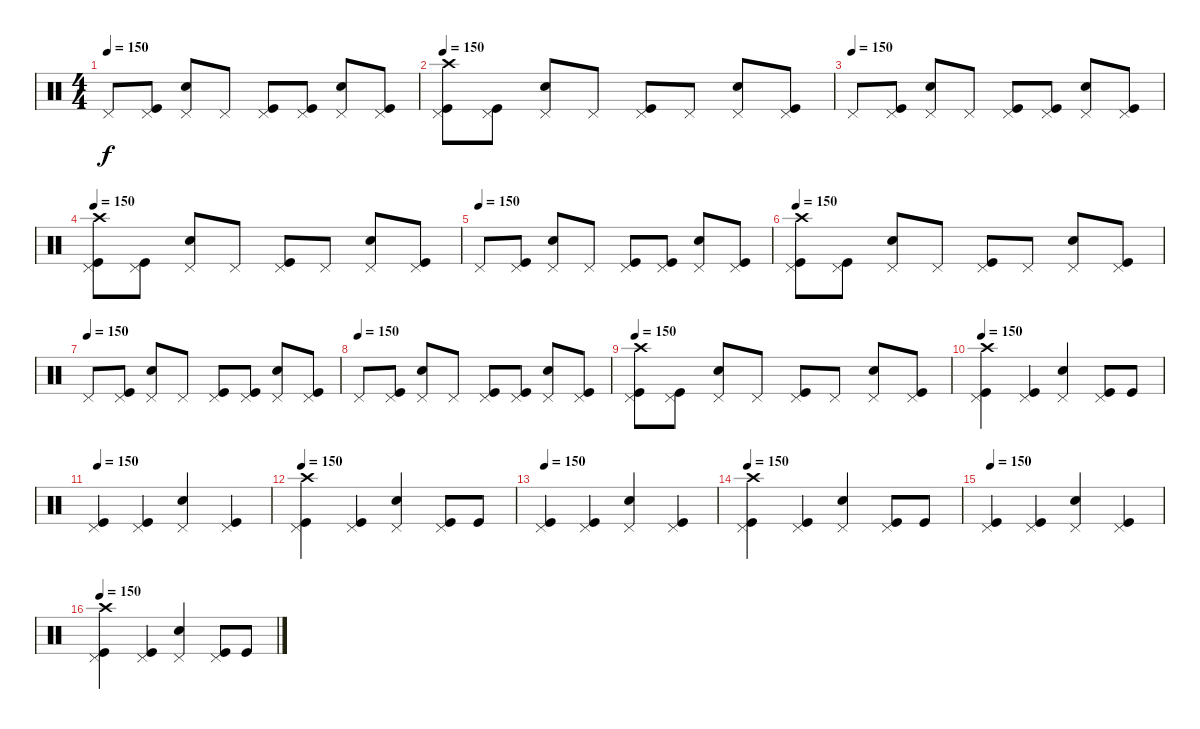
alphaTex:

\track "" {instrument percussion}
\staff {score}
\articulation defaults
\ts (4 4)
\tempo 150
\clef neutral
\ks c "Pedal Hi-Hat (hit)".8{dy f}
("Pedal Hi-Hat (hit)" "Kick (hit)").8 ("Pedal Hi-Hat (hit)" "Snare (hit) 2").8 "Pedal Hi-Hat (hit)".8 ("Pedal Hi-Hat (hit)" "Kick (hit)").8 ("Pedal Hi-Hat (hit)" "Kick (hit)").8 ("Pedal Hi-Hat (hit)" "Snare (hit) 2").8 ("Pedal Hi-Hat (hit)" "Kick (hit)").8 |
\tempo 150
("Pedal Hi-Hat (hit)" "Crash high (hit)" "Kick (hit)").8 ("Pedal Hi-Hat (hit)" "Kick (hit)").8 ("Pedal Hi-Hat (hit)" "Snare (hit) 2").8 "Pedal Hi-Hat (hit)".8 ("Pedal Hi-Hat (hit)" "Kick (hit)").8 "Pedal Hi-Hat (hit)".8 ("Pedal Hi-Hat (hit)" "Snare (hit) 2").8 ("Pedal Hi-Hat (hit)" "Kick (hit)").8 |
\tempo (150)
"Pedal Hi-Hat (hit)".8 ("Pedal Hi-Hat (hit)" "Kick (hit)").8 ("Pedal Hi-Hat (hit)" "Snare (hit) 2").8 "Pedal Hi-Hat (hit)".8 ("Pedal Hi-Hat (hit)" "Kick (hit)").8 ("Pedal Hi-Hat (hit)" "Kick (hit)").8 ("Pedal Hi-Hat (hit)" "Snare (hit) 2").8 ("Pedal Hi-Hat (hit)" "Kick (hit)").8 |
\tempo 150
("Pedal Hi-Hat (hit)" "Crash high (hit)" "Kick (hit)").8 ("Pedal Hi-Hat (hit)" "Kick (hit)").8 ("Pedal Hi-Hat (hit)" "Snare (hit) 2").8 "Pedal Hi-Hat (hit)".8 ("Pedal Hi-Hat (hit)" "Kick (hit)").8 "Pedal Hi-Hat (hit)".8 ("Pedal Hi-Hat (hit)" "Snare (hit) 2").8 ("Pedal Hi-Hat (hit)" "Kick (hit)").8 |
\tempo (150)
"Pedal Hi-Hat (hit)".8 ("Pedal Hi-Hat (hit)" "Kick (hit)").8 ("Pedal Hi-Hat (hit)" "Snare (hit) 2").8 "Pedal Hi-Hat (hit)".8 ("Pedal Hi-Hat (hit)" "Kick (hit)").8 ("Pedal Hi-Hat (hit)" "Kick (hit)").8 ("Pedal Hi-Hat (hit)" "Snare (hit) 2").8 ("Pedal Hi-Hat (hit)" "Kick (hit)").8 |
\tempo 150
("Pedal Hi-Hat (hit)" "Crash high (hit)" "Kick (hit)").8 ("Pedal Hi-Hat (hit)" "Kick (hit)").8 ("Pedal Hi-Hat (hit)" "Snare (hit) 2").8 "Pedal Hi-Hat (hit)".8 ("Pedal Hi-Hat (hit)" "Kick (hit)").8 "Pedal Hi-Hat (hit)".8 ("Pedal Hi-Hat (hit)" "Snare (hit) 2").8 ("Pedal Hi-Hat (hit)" "Kick (hit)").8 |
\tempo (150)
"Pedal Hi-Hat (hit)".8 ("Pedal Hi-Hat (hit)" "Kick (hit)").8 ("Pedal Hi-Hat (hit)" "Snare (hit) 2").8 "Pedal Hi-Hat (hit)".8 ("Pedal Hi-Hat (hit)" "Kick (hit)").8 ("Pedal Hi-Hat (hit)" "Kick (hit)").8 ("Pedal Hi-Hat (hit)" "Snare (hit) 2").8 ("Pedal Hi-Hat (hit)" "Kick (hit)").8 |
\tempo (150)
"Pedal Hi-Hat (hit)".8 ("Pedal Hi-Hat (hit)" "Kick (hit)").8 ("Pedal Hi-Hat (hit)" "Snare (hit) 2").8 "Pedal Hi-Hat (hit)".8 ("Pedal Hi-Hat (hit)" "Kick (hit)").8 ("Pedal Hi-Hat (hit)" "Kick (hit)").8 ("Pedal Hi-Hat (hit)" "Snare (hit) 2").8 ("Pedal Hi-Hat (hit)" "Kick (hit)").8 |
\tempo 150
("Pedal Hi-Hat (hit)" "Crash high (hit)" "Kick (hit)").8 ("Pedal Hi-Hat (hit)" "Kick (hit)").8 ("Pedal Hi-Hat (hit)" "Snare (hit) 2").8 "Pedal Hi-Hat (hit)".8 ("Pedal Hi-Hat (hit)" "Kick (hit)").8 "Pedal Hi-Hat (hit)".8 ("Pedal Hi-Hat (hit)" "Snare (hit) 2").8 ("Pedal Hi-Hat (hit)" "Kick (hit)").8 |
\tempo 150
("Pedal Hi-Hat (hit)" "Crash high (hit)" "Kick (hit)").4 ("Pedal Hi-Hat (hit)" "Kick (hit)").4 ("Pedal Hi-Hat (hit)" "Snare (hit) 2").4 ("Pedal Hi-Hat (hit)" "Kick (hit)").8 "Kick (hit)".8 |
\tempo 150
("Pedal Hi-Hat (hit)" "Kick (hit)").4 ("Pedal Hi-Hat (hit)" "Kick (hit)").4 ("Pedal Hi-Hat (hit)" "Snare (hit) 2").4 ("Pedal Hi-Hat (hit)" "Kick (hit)").4 |
\tempo 150
("Pedal Hi-Hat (hit)" "Crash high (hit)" "Kick (hit)").4 ("Pedal Hi-Hat (hit)" "Kick (hit)").4 ("Pedal Hi-Hat (hit)" "Snare (hit) 2").4 ("Pedal Hi-Hat (hit)" "Kick (hit)").8 "Kick (hit)".8 |
\tempo 150
("Pedal Hi-Hat (hit)" "Kick (hit)").4 ("Pedal Hi-Hat (hit)" "Kick (hit)").4 ("Pedal Hi-Hat (hit)" "Snare (hit) 2").4 ("Pedal Hi-Hat (hit)" "Kick (hit)").4 |
\tempo 150
("Pedal Hi-Hat (hit)" "Crash high (hit)" "Kick (hit)").4 ("Pedal Hi-Hat (hit)" "Kick (hit)").4 ("Pedal Hi-Hat (hit)" "Snare (hit) 2").4 ("Pedal Hi-Hat (hit)" "Kick (hit)").8 "Kick (hit)".8 |
\tempo 150
("Pedal Hi-Hat (hit)" "Kick (hit)").4 ("Pedal Hi-Hat (hit)" "Kick (hit)").4 ("Pedal Hi-Hat (hit)" "Snare (hit) 2").4 ("Pedal Hi-Hat (hit)" "Kick (hit)").4 |
\tempo 150
("Pedal Hi-Hat (hit)" "Crash high (hit)" "Kick (hit)").4 ("Pedal Hi-Hat (hit)" "Kick (hit)").4 ("Pedal Hi-Hat (hit)" "Snare (hit) 2").4 ("Pedal Hi-Hat (hit)" "Kick (hit)").8 "Kick (hit)".8
